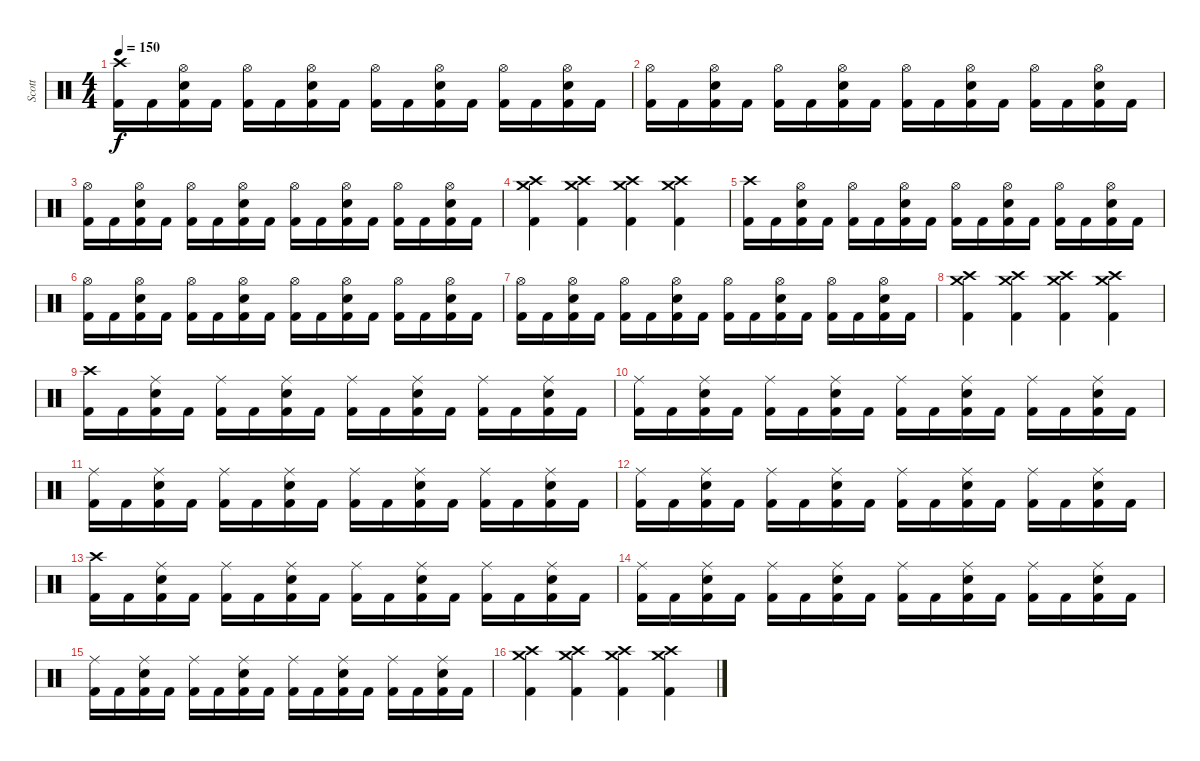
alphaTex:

\track ("Scott" "Scott") {instrument percussion}
\staff {score}
\articulation defaults
\ts (4 4)
\tempo 150
\clef neutral
\ks c
("Crash high (hit)" "Kick (hit) 2").16{dy f} "Kick (hit) 2".16 ("Hi-Hat (open)" "Snare (hit) 2" "Kick (hit) 2").16 "Kick (hit) 2".16 ("Hi-Hat (open)" "Kick (hit) 2").16 "Kick (hit) 2".16 ("Hi-Hat (open)" "Snare (hit) 2" "Kick (hit) 2").16 "Kick (hit) 2".16 ("Hi-Hat (open)" "Kick (hit) 2").16 "Kick (hit) 2".16 ("Hi-Hat (open)" "Snare (hit) 2" "Kick (hit) 2").16 "Kick (hit) 2".16 ("Hi-Hat (open)" "Kick (hit) 2").16 "Kick (hit) 2".16 ("Hi-Hat (open)" "Snare (hit) 2" "Kick (hit) 2").16 "Kick (hit) 2".16 |
("Hi-Hat (open)" "Kick (hit) 2").16 "Kick (hit) 2".16 ("Hi-Hat (open)" "Snare (hit) 2" "Kick (hit) 2").16 "Kick (hit) 2".16 ("Hi-Hat (open)" "Kick (hit) 2").16 "Kick (hit) 2".16 ("Hi-Hat (open)" "Snare (hit) 2" "Kick (hit) 2").16 "Kick (hit) 2".16 ("Hi-Hat (open)" "Kick (hit) 2").16 "Kick (hit) 2".16 ("Hi-Hat (open)" "Snare (hit) 2" "Kick (hit) 2").16 "Kick (hit) 2".16 ("Hi-Hat (open)" "Kick (hit) 2").16 "Kick (hit) 2".16 ("Hi-Hat (open)" "Snare (hit) 2" "Kick (hit) 2").16 "Kick (hit) 2".16 |
("Hi-Hat (open)" "Kick (hit) 2").16 "Kick (hit) 2".16 ("Hi-Hat (open)" "Snare (hit) 2" "Kick (hit) 2").16 "Kick (hit) 2".16 ("Hi-Hat (open)" "Kick (hit) 2").16 "Kick (hit) 2".16 ("Hi-Hat (open)" "Snare (hit) 2" "Kick (hit) 2").16 "Kick (hit) 2".16 ("Hi-Hat (open)" "Kick (hit) 2").16 "Kick (hit) 2".16 ("Hi-Hat (open)" "Snare (hit) 2" "Kick (hit) 2").16 "Kick (hit) 2".16 ("Hi-Hat (open)" "Kick (hit) 2").16 "Kick (hit) 2".16 ("Hi-Hat (open)" "Snare (hit) 2" "Kick (hit) 2").16 "Kick (hit) 2".16 |
("Crash high (hit)" "Crash medium (hit)" "Kick (hit) 2").4 ("Crash medium (hit)" "Crash high (hit)" "Kick (hit) 2").4 ("Crash high (hit)" "Crash medium (hit)" "Kick (hit) 2").4 ("Crash medium (hit)" "Crash high (hit)" "Kick (hit) 2").4 |
("Crash high (hit)" "Kick (hit) 2").16 "Kick (hit) 2".16 ("Hi-Hat (open)" "Snare (hit) 2" "Kick (hit) 2").16 "Kick (hit) 2".16 ("Hi-Hat (open)" "Kick (hit) 2").16 "Kick (hit) 2".16 ("Hi-Hat (open)" "Snare (hit) 2" "Kick (hit) 2").16 "Kick (hit) 2".16 ("Hi-Hat (open)" "Kick (hit) 2").16 "Kick (hit) 2".16 ("Hi-Hat (open)" "Snare (hit) 2" "Kick (hit) 2").16 "Kick (hit) 2".16 ("Hi-Hat (open)" "Kick (hit) 2").16 "Kick (hit) 2".16 ("Hi-Hat (open)" "Snare (hit) 2" "Kick (hit) 2").16 "Kick (hit) 2".16 |
("Hi-Hat (open)" "Kick (hit) 2").16 "Kick (hit) 2".16 ("Hi-Hat (open)" "Snare (hit) 2" "Kick (hit) 2").16 "Kick (hit) 2".16 ("Hi-Hat (open)" "Kick (hit) 2").16 "Kick (hit) 2".16 ("Hi-Hat (open)" "Snare (hit) 2" "Kick (hit) 2").16 "Kick (hit) 2".16 ("Hi-Hat (open)" "Kick (hit) 2").16 "Kick (hit) 2".16 ("Hi-Hat (open)" "Snare (hit) 2" "Kick (hit) 2").16 "Kick (hit) 2".16 ("Hi-Hat (open)" "Kick (hit) 2").16 "Kick (hit) 2".16 ("Hi-Hat (open)" "Snare (hit) 2" "Kick (hit) 2").16 "Kick (hit) 2".16 |
("Hi-Hat (open)" "Kick (hit) 2").16 "Kick (hit) 2".16 ("Hi-Hat (open)" "Snare (hit) 2" "Kick (hit) 2").16 "Kick (hit) 2".16 ("Hi-Hat (open)" "Kick (hit) 2").16 "Kick (hit) 2".16 ("Hi-Hat (open)" "Snare (hit) 2" "Kick (hit) 2").16 "Kick (hit) 2".16 ("Hi-Hat (open)" "Kick (hit) 2").16 "Kick (hit) 2".16 ("Hi-Hat (open)" "Snare (hit) 2" "Kick (hit) 2").16 "Kick (hit) 2".16 ("Hi-Hat (open)" "Kick (hit) 2").16 "Kick (hit) 2".16 ("Hi-Hat (open)" "Snare (hit) 2" "Kick (hit) 2").16 "Kick (hit) 2".16 |
("Crash high (hit)" "Crash medium (hit)" "Kick (hit) 2").4 ("Crash medium (hit)" "Crash high (hit)" "Kick (hit) 2").4 ("Crash high (hit)" "Crash medium (hit)" "Kick (hit) 2").4 ("Crash medium (hit)" "Crash high (hit)" "Kick (hit) 2").4 |
("Crash high (hit)" "Kick (hit) 2").16 "Kick (hit) 2".16 ("Ride (middle)" "Snare (hit) 2" "Kick (hit) 2").16 "Kick (hit) 2".16 ("Ride (middle)" "Kick (hit) 2").16 "Kick (hit) 2".16 ("Ride (middle)" "Snare (hit) 2" "Kick (hit) 2").16 "Kick (hit) 2".16 ("Ride (middle)" "Kick (hit) 2").16 "Kick (hit) 2".16 ("Ride (middle)" "Snare (hit) 2" "Kick (hit) 2").16 "Kick (hit) 2".16 ("Ride (middle)" "Kick (hit) 2").16 "Kick (hit) 2".16 ("Ride (middle)" "Snare (hit) 2" "Kick (hit) 2").16 "Kick (hit) 2".16 |
("Ride (middle)" "Kick (hit) 2").16 "Kick (hit) 2".16 ("Ride (middle)" "Snare (hit) 2" "Kick (hit) 2").16 "Kick (hit) 2".16 ("Ride (middle)" "Kick (hit) 2").16 "Kick (hit) 2".16 ("Ride (middle)" "Snare (hit) 2" "Kick (hit) 2").16 "Kick (hit) 2".16 ("Ride (middle)" "Kick (hit) 2").16 "Kick (hit) 2".16 ("Ride (middle)" "Snare (hit) 2" "Kick (hit) 2").16 "Kick (hit) 2".16 ("Ride (middle)" "Kick (hit) 2").16 "Kick (hit) 2".16 ("Ride (middle)" "Snare (hit) 2" "Kick (hit) 2").16 "Kick (hit) 2".16 |
("Ride (middle)" "Kick (hit) 2").16 "Kick (hit) 2".16 ("Ride (middle)" "Snare (hit) 2" "Kick (hit) 2").16 "Kick (hit) 2".16 ("Ride (middle)" "Kick (hit) 2").16 "Kick (hit) 2".16 ("Ride (middle)" "Snare (hit) 2" "Kick (hit) 2").16 "Kick (hit) 2".16 ("Ride (middle)" "Kick (hit) 2").16 "Kick (hit) 2".16 ("Ride (middle)" "Snare (hit) 2" "Kick (hit) 2").16 "Kick (hit) 2".16 ("Ride (middle)" "Kick (hit) 2").16 "Kick (hit) 2".16 ("Ride (middle)" "Snare (hit) 2" "Kick (hit) 2").16 "Kick (hit) 2".16 |
("Ride (middle)" "Kick (hit) 2").16 "Kick (hit) 2".16 ("Ride (middle)" "Snare (hit) 2" "Kick (hit) 2").16 "Kick (hit) 2".16 ("Ride (middle)" "Kick (hit) 2").16 "Kick (hit) 2".16 ("Ride (middle)" "Snare (hit) 2" "Kick (hit) 2").16 "Kick (hit) 2".16 ("Ride (middle)" "Kick (hit) 2").16 "Kick (hit) 2".16 ("Ride (middle)" "Snare (hit) 2" "Kick (hit) 2").16 "Kick (hit) 2".16 ("Ride (middle)" "Kick (hit) 2").16 "Kick (hit) 2".16 ("Ride (middle)" "Snare (hit) 2" "Kick (hit) 2").16 "Kick (hit) 2".16 |
("Crash high (hit)" "Kick (hit) 2").16 "Kick (hit) 2".16 ("Ride (middle)" "Snare (hit) 2" "Kick (hit) 2").16 "Kick (hit) 2".16 ("Ride (middle)" "Kick (hit) 2").16 "Kick (hit) 2".16 ("Ride (middle)" "Snare (hit) 2" "Kick (hit) 2").16 "Kick (hit) 2".16 ("Ride (middle)" "Kick (hit) 2").16 "Kick (hit) 2".16 ("Ride (middle)" "Snare (hit) 2" "Kick (hit) 2").16 "Kick (hit) 2".16 ("Ride (middle)" "Kick (hit) 2").16 "Kick (hit) 2".16 ("Ride (middle)" "Snare (hit) 2" "Kick (hit) 2").16 "Kick (hit) 2".16 |
("Ride (middle)" "Kick (hit) 2").16 "Kick (hit) 2".16 ("Ride (middle)" "Snare (hit) 2" "Kick (hit) 2").16 "Kick (hit) 2".16 ("Ride (middle)" "Kick (hit) 2").16 "Kick (hit) 2".16 ("Ride (middle)" "Snare (hit) 2" "Kick (hit) 2").16 "Kick (hit) 2".16 ("Ride (middle)" "Kick (hit) 2").16 "Kick (hit) 2".16 ("Ride (middle)" "Snare (hit) 2" "Kick (hit) 2").16 "Kick (hit) 2".16 ("Ride (middle)" "Kick (hit) 2").16 "Kick (hit) 2".16 ("Ride (middle)" "Snare (hit) 2" "Kick (hit) 2").16 "Kick (hit) 2".16 |
("Ride (middle)" "Kick (hit) 2").16 "Kick (hit) 2".16 ("Ride (middle)" "Snare (hit) 2" "Kick (hit) 2").16 "Kick (hit) 2".16 ("Ride (middle)" "Kick (hit) 2").16 "Kick (hit) 2".16 ("Ride (middle)" "Snare (hit) 2" "Kick (hit) 2").16 "Kick (hit) 2".16 ("Ride (middle)" "Kick (hit) 2").16 "Kick (hit) 2".16 ("Ride (middle)" "Snare (hit) 2" "Kick (hit) 2").16 "Kick (hit) 2".16 ("Ride (middle)" "Kick (hit) 2").16 "Kick (hit) 2".16 ("Ride (middle)" "Snare (hit) 2" "Kick (hit) 2").16 "Kick (hit) 2".16 |
("Crash high (hit)" "Crash medium (hit)" "Kick (hit) 2").4 ("Crash high (hit)" "Crash medium (hit)" "Kick (hit) 2").4 ("Crash medium (hit)" "Crash high (hit)" "Kick (hit) 2").4 ("Crash high (hit)" "Crash medium (hit)" "Kick (hit) 2").4
